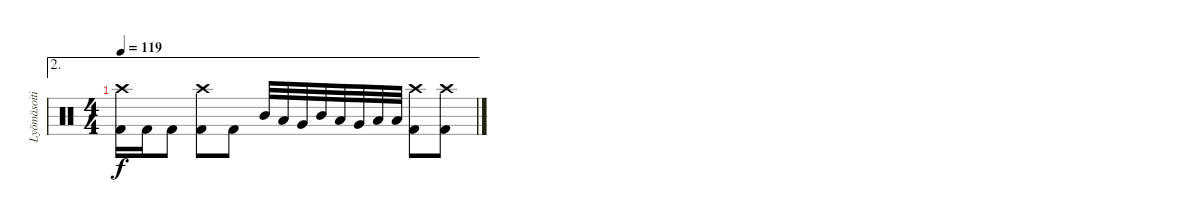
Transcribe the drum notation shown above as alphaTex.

\track ("Lyömäsoitin" "Lyömäsoiti") {instrument percussion}
\staff {score}
\articulation defaults
\ae 2
\ts (4 4)
\tempo 119
\clef neutral
\ks c
("Crash high (hit)" "Kick (hit) 2").16{dy f} "Kick (hit) 2".16 "Kick (hit) 2".8 ("Crash high (hit)" "Kick (hit) 2").8 "Kick (hit) 2".8 "Mid Tom (hit)".32 "Low Tom (hit)".32 "Very Low Tom (hit)".32 "Mid Tom (hit)".32 "Low Tom (hit)".32 "Very Low Tom (hit)".32 "Low Floor Tom (hit)".32 "Low Floor Tom (hit)".32 ("Crash high (hit)" "Kick (hit) 2").8 ("Crash high (hit)" "Kick (hit) 2").8
